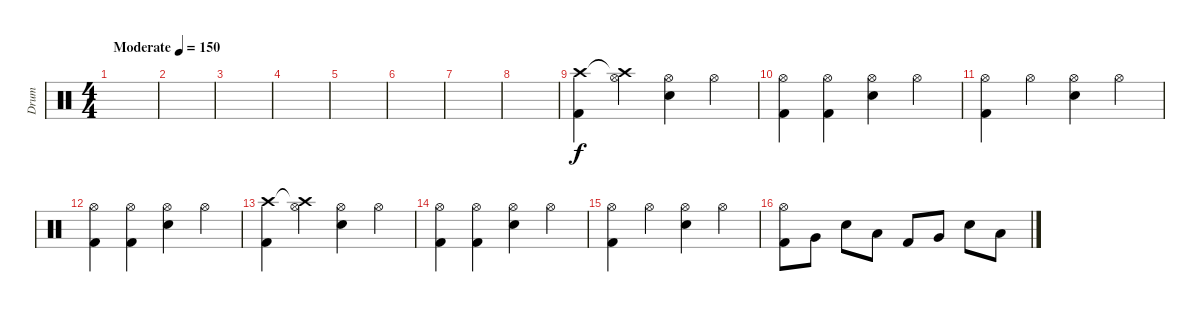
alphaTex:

\track ("Drum" "Drum") {instrument percussion}
\staff {score}
\articulation defaults
\ts (4 4)
\tempo (150 "Moderate")
\clef neutral
\ks c
|
|
|
|
|
|
|
|
("Crash high (hit)" "Kick (hit) 2").4 ("Crash high (hit)"{t} "Hi-Hat (open)").4 ("Hi-Hat (open)" "Snare (hit) 2").4 "Hi-Hat (open)".4 |
("Hi-Hat (open)" "Kick (hit) 2").4 ("Hi-Hat (open)" "Kick (hit) 2").4 ("Hi-Hat (open)" "Snare (hit) 2").4 "Hi-Hat (open)".4 |
("Hi-Hat (open)" "Kick (hit) 2").4 "Hi-Hat (open)".4 ("Hi-Hat (open)" "Snare (hit) 2").4 "Hi-Hat (open)".4 |
("Hi-Hat (open)" "Kick (hit) 2").4 ("Hi-Hat (open)" "Kick (hit) 2").4 ("Hi-Hat (open)" "Snare (hit) 2").4 "Hi-Hat (open)".4 |
("Crash high (hit)" "Kick (hit) 2").4 ("Crash high (hit)"{t} "Hi-Hat (open)").4 ("Hi-Hat (open)" "Snare (hit) 2").4 "Hi-Hat (open)".4 |
("Hi-Hat (open)" "Kick (hit) 2").4 ("Hi-Hat (open)" "Kick (hit) 2").4 ("Hi-Hat (open)" "Snare (hit) 2").4 "Hi-Hat (open)".4 |
("Hi-Hat (open)" "Kick (hit) 2").4 "Hi-Hat (open)".4 ("Hi-Hat (open)" "Snare (hit) 2").4 "Hi-Hat (open)".4 |
("Hi-Hat (open)" "Kick (hit) 2").8 "Very Low Tom (hit)".8 "Snare (hit) 2".8 "Low Tom (hit)".8 "Kick (hit) 2".8 "Very Low Tom (hit)".8 "Snare (hit) 2".8 "Low Tom (hit)".8
